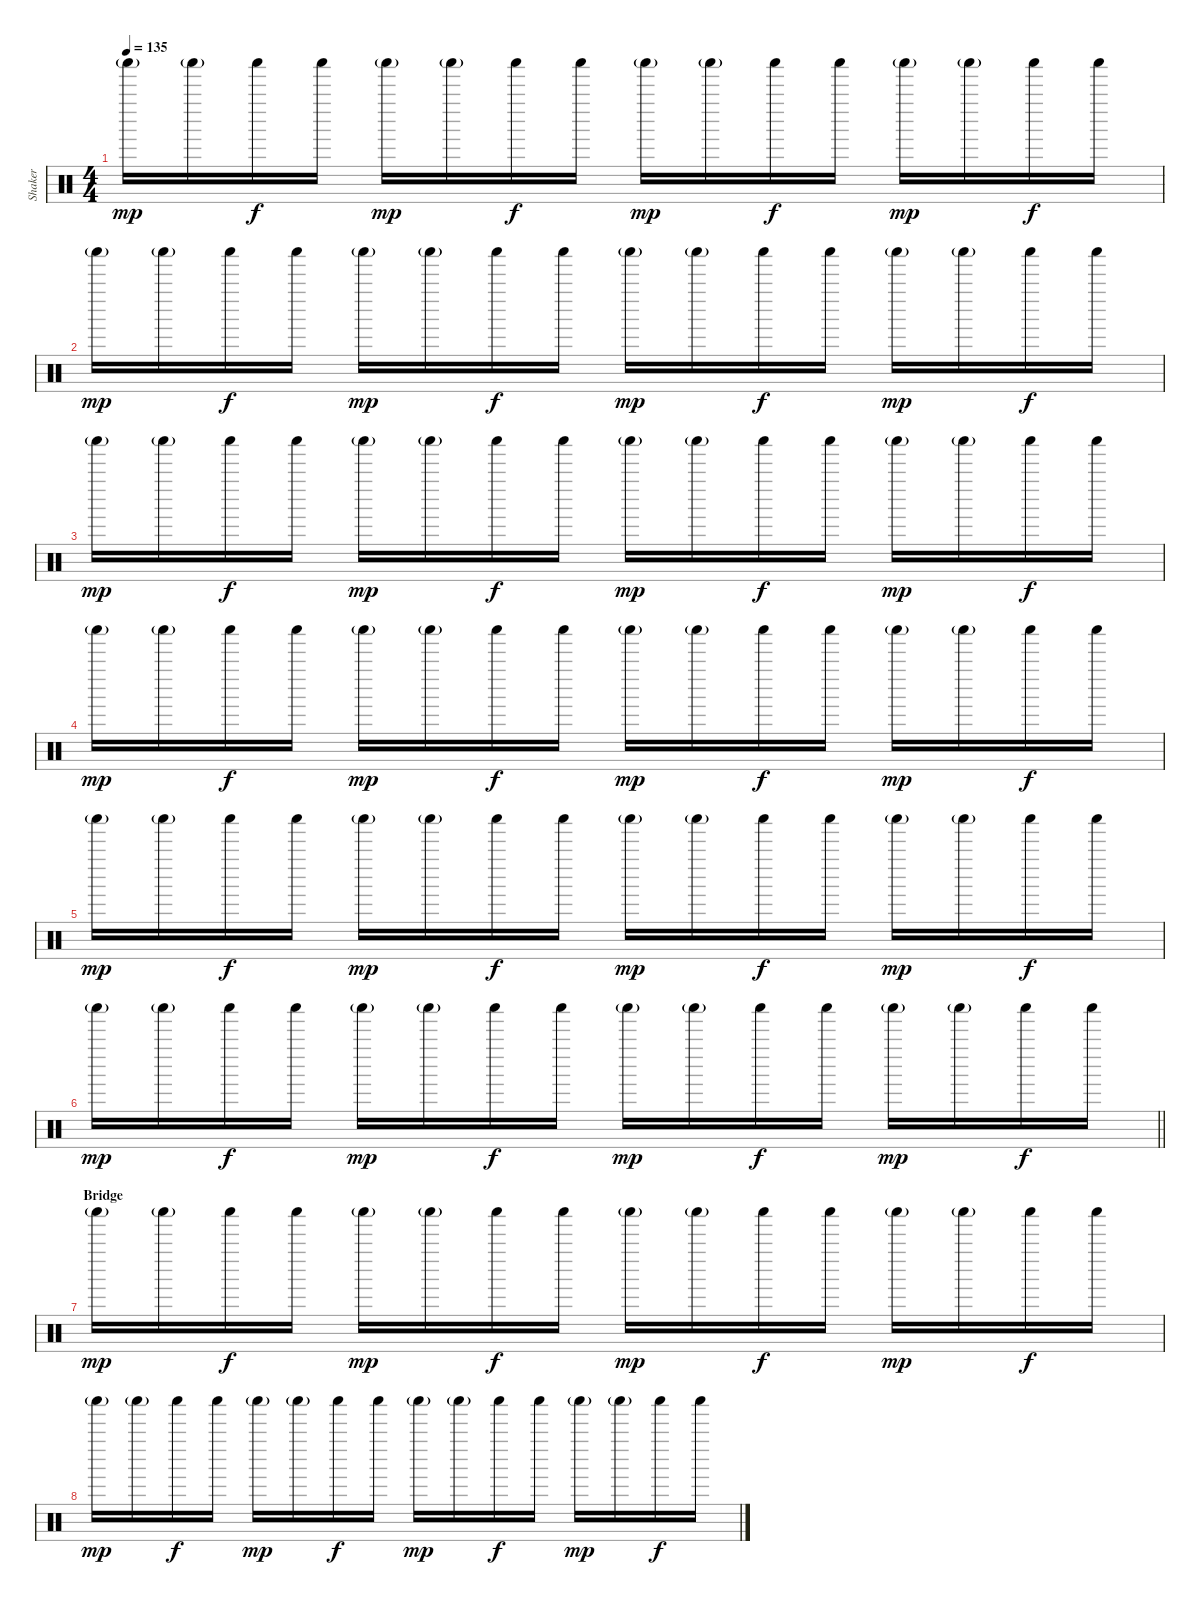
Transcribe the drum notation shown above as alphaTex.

\track ("Shaker" "Shaker") {instrument percussion}
\staff {score}
\articulation defaults
\ts (4 4)
\tempo 135
\clef neutral
\ks c "Shaker (hit)"{g}.16{dy mp} "Shaker (hit)"{g}.16 "Shaker (hit)".16{dy f} "Shaker (hit)".16 "Shaker (hit)"{g}.16{dy mp} "Shaker (hit)"{g}.16 "Shaker (hit)".16{dy f} "Shaker (hit)".16 "Shaker (hit)"{g}.16{dy mp} "Shaker (hit)"{g}.16 "Shaker (hit)".16{dy f} "Shaker (hit)".16 "Shaker (hit)"{g}.16{dy mp} "Shaker (hit)"{g}.16 "Shaker (hit)".16{dy f} "Shaker (hit)".16
|
"Shaker (hit)"{g}.16{dy mp} "Shaker (hit)"{g}.16 "Shaker (hit)".16{dy f} "Shaker (hit)".16 "Shaker (hit)"{g}.16{dy mp} "Shaker (hit)"{g}.16 "Shaker (hit)".16{dy f} "Shaker (hit)".16 "Shaker (hit)"{g}.16{dy mp} "Shaker (hit)"{g}.16 "Shaker (hit)".16{dy f} "Shaker (hit)".16 "Shaker (hit)"{g}.16{dy mp} "Shaker (hit)"{g}.16 "Shaker (hit)".16{dy f} "Shaker (hit)".16 |
"Shaker (hit)"{g}.16{dy mp} "Shaker (hit)"{g}.16 "Shaker (hit)".16{dy f} "Shaker (hit)".16 "Shaker (hit)"{g}.16{dy mp} "Shaker (hit)"{g}.16 "Shaker (hit)".16{dy f} "Shaker (hit)".16 "Shaker (hit)"{g}.16{dy mp} "Shaker (hit)"{g}.16 "Shaker (hit)".16{dy f} "Shaker (hit)".16 "Shaker (hit)"{g}.16{dy mp} "Shaker (hit)"{g}.16 "Shaker (hit)".16{dy f} "Shaker (hit)".16 |
"Shaker (hit)"{g}.16{dy mp} "Shaker (hit)"{g}.16 "Shaker (hit)".16{dy f} "Shaker (hit)".16 "Shaker (hit)"{g}.16{dy mp} "Shaker (hit)"{g}.16 "Shaker (hit)".16{dy f} "Shaker (hit)".16 "Shaker (hit)"{g}.16{dy mp} "Shaker (hit)"{g}.16 "Shaker (hit)".16{dy f} "Shaker (hit)".16 "Shaker (hit)"{g}.16{dy mp} "Shaker (hit)"{g}.16 "Shaker (hit)".16{dy f} "Shaker (hit)".16 |
"Shaker (hit)"{g}.16{dy mp} "Shaker (hit)"{g}.16 "Shaker (hit)".16{dy f} "Shaker (hit)".16 "Shaker (hit)"{g}.16{dy mp} "Shaker (hit)"{g}.16 "Shaker (hit)".16{dy f} "Shaker (hit)".16 "Shaker (hit)"{g}.16{dy mp} "Shaker (hit)"{g}.16 "Shaker (hit)".16{dy f} "Shaker (hit)".16 "Shaker (hit)"{g}.16{dy mp} "Shaker (hit)"{g}.16 "Shaker (hit)".16{dy f} "Shaker (hit)".16 |
\barLineRight lightlight "Shaker (hit)"{g}.16{dy mp} "Shaker (hit)"{g}.16 "Shaker (hit)".16{dy f} "Shaker (hit)".16 "Shaker (hit)"{g}.16{dy mp} "Shaker (hit)"{g}.16 "Shaker (hit)".16{dy f} "Shaker (hit)".16 "Shaker (hit)"{g}.16{dy mp} "Shaker (hit)"{g}.16 "Shaker (hit)".16{dy f} "Shaker (hit)".16 "Shaker (hit)"{g}.16{dy mp} "Shaker (hit)"{g}.16 "Shaker (hit)".16{dy f} "Shaker (hit)".16
|
\section ("" "Bridge")
"Shaker (hit)"{g}.16{dy mp} "Shaker (hit)"{g}.16 "Shaker (hit)".16{dy f} "Shaker (hit)".16 "Shaker (hit)"{g}.16{dy mp} "Shaker (hit)"{g}.16 "Shaker (hit)".16{dy f} "Shaker (hit)".16 "Shaker (hit)"{g}.16{dy mp} "Shaker (hit)"{g}.16 "Shaker (hit)".16{dy f} "Shaker (hit)".16 "Shaker (hit)"{g}.16{dy mp} "Shaker (hit)"{g}.16 "Shaker (hit)".16{dy f} "Shaker (hit)".16 |
"Shaker (hit)"{g}.16{dy mp} "Shaker (hit)"{g}.16 "Shaker (hit)".16{dy f} "Shaker (hit)".16 "Shaker (hit)"{g}.16{dy mp} "Shaker (hit)"{g}.16 "Shaker (hit)".16{dy f} "Shaker (hit)".16 "Shaker (hit)"{g}.16{dy mp} "Shaker (hit)"{g}.16 "Shaker (hit)".16{dy f} "Shaker (hit)".16 "Shaker (hit)"{g}.16{dy mp} "Shaker (hit)"{g}.16 "Shaker (hit)".16{dy f} "Shaker (hit)".16
